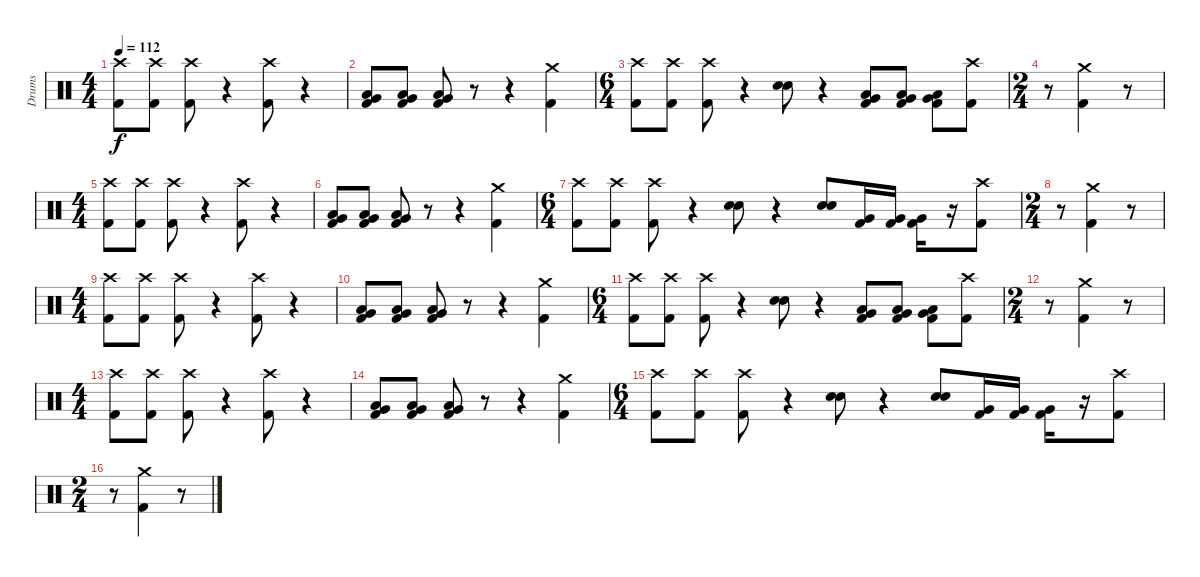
\track ("Drums" "Drums") {instrument percussion}
\staff {score}
\articulation defaults
\ts (4 4)
\tempo 112
\clef neutral
\ks c
("Crash high (hit)" "Kick (hit) 2").8{dy f} ("Crash high (hit)" "Kick (hit) 2").8 ("Crash high (hit)" "Kick (hit) 2").8 r.4 ("Crash high (hit)" "Kick (hit) 2").8 r.4 |
("Very Low Tom (hit)" "Low Floor Tom (hit)" "Kick (hit) 2").8 ("Very Low Tom (hit)" "Low Floor Tom (hit)" "Kick (hit) 2").8 ("Very Low Tom (hit)" "Low Floor Tom (hit)" "Kick (hit) 2").8 r.8 r.4 ("Crash medium (hit)" "Kick (hit) 2").4 |
\ts (6 4)
("Crash high (hit)" "Kick (hit) 2").8 ("Crash high (hit)" "Kick (hit) 2").8 ("Crash high (hit)" "Kick (hit) 2").8 r.4 ("Snare (hit) 2" "Electric Snare (hit)").8 r.4 ("Low Floor Tom (hit)" "Very Low Tom (hit)" "Kick (hit) 2").8 ("Low Floor Tom (hit)" "Very Low Tom (hit)" "Kick (hit) 2").8 ("Low Floor Tom (hit)" "Very Low Tom (hit)" "Kick (hit) 2").8 ("Crash high (hit)" "Kick (hit) 2").8 |
\ts (2 4)
r.8 ("Crash medium (hit)" "Kick (hit) 2").4 r.8 |
\ts (4 4)
("Crash high (hit)" "Kick (hit) 2").8 ("Crash high (hit)" "Kick (hit) 2").8 ("Crash high (hit)" "Kick (hit) 2").8 r.4 ("Crash high (hit)" "Kick (hit) 2").8 r.4 |
("Very Low Tom (hit)" "Low Floor Tom (hit)" "Kick (hit) 2").8 ("Very Low Tom (hit)" "Low Floor Tom (hit)" "Kick (hit) 2").8 ("Very Low Tom (hit)" "Low Floor Tom (hit)" "Kick (hit) 2").8 r.8 r.4 ("Crash medium (hit)" "Kick (hit) 2").4 |
\ts (6 4)
("Crash high (hit)" "Kick (hit) 2").8 ("Crash high (hit)" "Kick (hit) 2").8 ("Crash high (hit)" "Kick (hit) 2").8 r.4 ("Snare (hit) 2" "Electric Snare (hit)").8 r.4 ("Snare (hit) 2" "Electric Snare (hit)").8 ("Very Low Tom (hit)" "Kick (hit) 2").16 ("Very Low Tom (hit)" "Kick (hit) 2").16 ("Very Low Tom (hit)" "Kick (hit) 2").16 r.16 ("Crash high (hit)" "Kick (hit) 2").8 |
\ts (2 4)
r.8 ("Crash medium (hit)" "Kick (hit) 2").4 r.8 |
\ts (4 4)
("Crash high (hit)" "Kick (hit) 2").8 ("Crash high (hit)" "Kick (hit) 2").8 ("Crash high (hit)" "Kick (hit) 2").8 r.4 ("Crash high (hit)" "Kick (hit) 2").8 r.4 |
("Very Low Tom (hit)" "Low Floor Tom (hit)" "Kick (hit) 2").8 ("Very Low Tom (hit)" "Low Floor Tom (hit)" "Kick (hit) 2").8 ("Very Low Tom (hit)" "Low Floor Tom (hit)" "Kick (hit) 2").8 r.8 r.4 ("Crash medium (hit)" "Kick (hit) 2").4 |
\ts (6 4)
("Crash high (hit)" "Kick (hit) 2").8 ("Crash high (hit)" "Kick (hit) 2").8 ("Crash high (hit)" "Kick (hit) 2").8 r.4 ("Snare (hit) 2" "Electric Snare (hit)").8 r.4 ("Low Floor Tom (hit)" "Very Low Tom (hit)" "Kick (hit) 2").8 ("Low Floor Tom (hit)" "Very Low Tom (hit)" "Kick (hit) 2").8 ("Low Floor Tom (hit)" "Very Low Tom (hit)" "Kick (hit) 2").8 ("Crash high (hit)" "Kick (hit) 2").8 |
\ts (2 4)
r.8 ("Crash medium (hit)" "Kick (hit) 2").4 r.8 |
\ts (4 4)
("Crash high (hit)" "Kick (hit) 2").8 ("Crash high (hit)" "Kick (hit) 2").8 ("Crash high (hit)" "Kick (hit) 2").8 r.4 ("Crash high (hit)" "Kick (hit) 2").8 r.4 |
("Very Low Tom (hit)" "Low Floor Tom (hit)" "Kick (hit) 2").8 ("Very Low Tom (hit)" "Low Floor Tom (hit)" "Kick (hit) 2").8 ("Very Low Tom (hit)" "Low Floor Tom (hit)" "Kick (hit) 2").8 r.8 r.4 ("Crash medium (hit)" "Kick (hit) 2").4 |
\ts (6 4)
("Crash high (hit)" "Kick (hit) 2").8 ("Crash high (hit)" "Kick (hit) 2").8 ("Crash high (hit)" "Kick (hit) 2").8 r.4 ("Snare (hit) 2" "Electric Snare (hit)").8 r.4 ("Snare (hit) 2" "Electric Snare (hit)").8 ("Very Low Tom (hit)" "Kick (hit) 2").16 ("Very Low Tom (hit)" "Kick (hit) 2").16 ("Very Low Tom (hit)" "Kick (hit) 2").16 r.16 ("Crash high (hit)" "Kick (hit) 2").8 |
\ts (2 4)
r.8 ("Crash medium (hit)" "Kick (hit) 2").4 r.8
